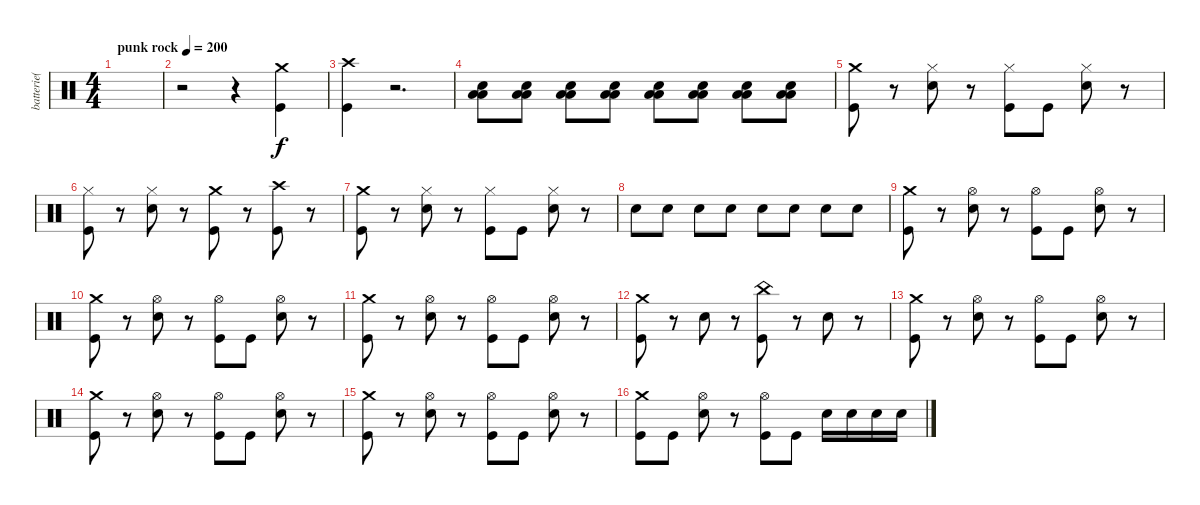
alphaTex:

\track ("batterie( Meggers )" "batterie( ") {instrument percussion}
\staff {score}
\articulation defaults
\ts (4 4)
\tempo (200 "punk rock")
\clef neutral
\ks c
|
r.2 r.4 ("Crash medium (hit)" "Kick (hit)").4 |
("Crash high (hit)" "Kick (hit)").4 r.2{d} |
("Low Floor Tom (hit)" "Low Floor Tom (hit)" "Snare (hit) 2").8 ("Low Floor Tom (hit)" "Low Floor Tom (hit)" "Snare (hit) 2").8 ("Low Floor Tom (hit)" "Low Floor Tom (hit)" "Snare (hit) 2").8 ("Low Floor Tom (hit)" "Low Floor Tom (hit)" "Snare (hit) 2").8 ("Low Floor Tom (hit)" "Low Floor Tom (hit)" "Snare (hit) 2").8 ("Low Floor Tom (hit)" "Low Floor Tom (hit)" "Snare (hit) 2").8 ("Low Floor Tom (hit)" "Low Floor Tom (hit)" "Snare (hit) 2").8 ("Low Floor Tom (hit)" "Low Floor Tom (hit)" "Snare (hit) 2").8 |
("Crash medium (hit)" "Kick (hit)").8 r.8 ("Hi-Hat (closed)" "Snare (hit) 2").8 r.8 ("Hi-Hat (closed)" "Kick (hit)").8 "Kick (hit)".8 ("Hi-Hat (closed)" "Snare (hit) 2").8 r.8 |
("Hi-Hat (closed)" "Kick (hit)").8 r.8 ("Hi-Hat (closed)" "Snare (hit) 2").8 r.8 ("Crash medium (hit)" "Kick (hit)").8 r.8 ("Crash high (hit)" "Kick (hit)").8 r.8 |
("Crash medium (hit)" "Kick (hit)").8 r.8 ("Hi-Hat (closed)" "Snare (hit) 2").8 r.8 ("Hi-Hat (closed)" "Kick (hit)").8 "Kick (hit)".8 ("Hi-Hat (closed)" "Snare (hit) 2").8 r.8 |
"Snare (hit) 2".8 "Snare (hit) 2".8 "Snare (hit) 2".8 "Snare (hit) 2".8 "Snare (hit) 2".8 "Snare (hit) 2".8 "Snare (hit) 2".8 "Snare (hit) 2".8 |
("Crash medium (hit)" "Kick (hit)").8 r.8 ("Hi-Hat (open)" "Snare (hit) 2").8 r.8 ("Hi-Hat (open)" "Kick (hit)").8 "Kick (hit)".8 ("Hi-Hat (open)" "Snare (hit) 2").8 r.8 |
("Crash medium (hit)" "Kick (hit)").8 r.8 ("Hi-Hat (open)" "Snare (hit) 2").8 r.8 ("Hi-Hat (open)" "Kick (hit)").8 "Kick (hit)".8 ("Hi-Hat (open)" "Snare (hit) 2").8 r.8 |
("Crash medium (hit)" "Kick (hit)").8 r.8 ("Hi-Hat (open)" "Snare (hit) 2").8 r.8 ("Hi-Hat (open)" "Kick (hit)").8 "Kick (hit)".8 ("Hi-Hat (open)" "Snare (hit) 2").8 r.8 |
("Crash medium (hit)" "Kick (hit)").8 r.8 "Snare (hit) 2".8 r.8 ("China (hit)" "Kick (hit)").8 r.8 "Snare (hit) 2".8 r.8 |
("Crash medium (hit)" "Kick (hit)").8 r.8 ("Hi-Hat (open)" "Snare (hit) 2").8 r.8 ("Hi-Hat (open)" "Kick (hit)").8 "Kick (hit)".8 ("Hi-Hat (open)" "Snare (hit) 2").8 r.8 |
("Crash medium (hit)" "Kick (hit)").8 r.8 ("Hi-Hat (open)" "Snare (hit) 2").8 r.8 ("Hi-Hat (open)" "Kick (hit)").8 "Kick (hit)".8 ("Hi-Hat (open)" "Snare (hit) 2").8 r.8 |
("Crash medium (hit)" "Kick (hit)").8 r.8 ("Hi-Hat (open)" "Snare (hit) 2").8 r.8 ("Hi-Hat (open)" "Kick (hit)").8 "Kick (hit)".8 ("Hi-Hat (open)" "Snare (hit) 2").8 r.8 |
("Crash medium (hit)" "Kick (hit)").8 "Kick (hit)".8 ("Hi-Hat (open)" "Snare (hit) 2").8 r.8 ("Hi-Hat (open)" "Kick (hit)").8 "Kick (hit)".8 "Snare (hit) 2".16 "Snare (hit) 2".16 "Snare (hit) 2".16 "Snare (hit) 2".16
